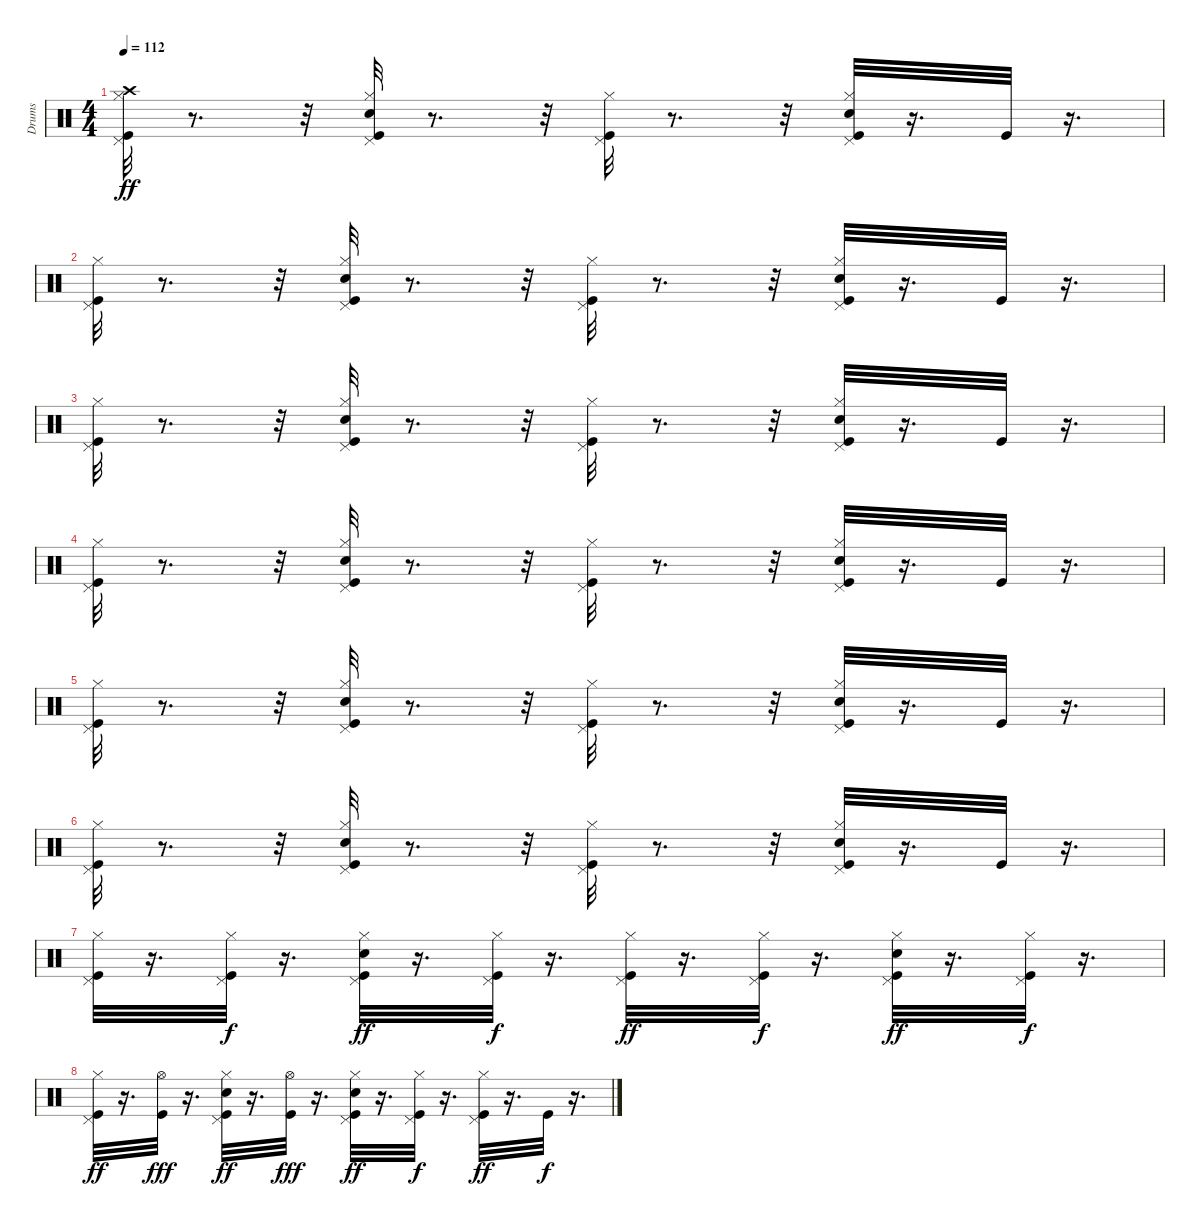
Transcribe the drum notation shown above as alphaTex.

\track ("Drums" "Drums") {instrument percussion}
\staff {score}
\articulation defaults
\ts (4 4)
\tempo 112
\clef neutral
\ks c
("Pedal Hi-Hat (hit)" "Crash high (hit)" "Kick (hit)" "Hi-Hat (closed)").32{dy ff} r.8{d} r.32 ("Pedal Hi-Hat (hit)" "Hi-Hat (closed)" "Kick (hit)" "Snare (hit) 2").32 r.8{d} r.32 ("Pedal Hi-Hat (hit)" "Kick (hit)" "Hi-Hat (closed)").32 r.8{d} r.32 ("Pedal Hi-Hat (hit)" "Snare (hit) 2" "Kick (hit)" "Hi-Hat (closed)").32 r.16{d} "Kick (hit)".32 r.16{d} |
("Pedal Hi-Hat (hit)" "Hi-Hat (closed)" "Kick (hit)").32 r.8{d} r.32 ("Snare (hit) 2" "Hi-Hat (closed)" "Kick (hit)" "Pedal Hi-Hat (hit)").32 r.8{d} r.32 ("Kick (hit)" "Pedal Hi-Hat (hit)" "Hi-Hat (closed)").32 r.8{d} r.32 ("Snare (hit) 2" "Kick (hit)" "Hi-Hat (closed)" "Pedal Hi-Hat (hit)").32 r.16{d} "Kick (hit)".32 r.16{d} |
("Pedal Hi-Hat (hit)" "Kick (hit)" "Hi-Hat (closed)").32 r.8{d} r.32 ("Kick (hit)" "Hi-Hat (closed)" "Snare (hit) 2" "Pedal Hi-Hat (hit)").32 r.8{d} r.32 ("Kick (hit)" "Pedal Hi-Hat (hit)" "Hi-Hat (closed)").32 r.8{d} r.32 ("Hi-Hat (closed)" "Kick (hit)" "Snare (hit) 2" "Pedal Hi-Hat (hit)").32 r.16{d} "Kick (hit)".32 r.16{d} |
("Pedal Hi-Hat (hit)" "Kick (hit)" "Hi-Hat (closed)").32 r.8{d} r.32 ("Hi-Hat (closed)" "Snare (hit) 2" "Kick (hit)" "Pedal Hi-Hat (hit)").32 r.8{d} r.32 ("Kick (hit)" "Hi-Hat (closed)" "Pedal Hi-Hat (hit)").32 r.8{d} r.32 ("Snare (hit) 2" "Kick (hit)" "Pedal Hi-Hat (hit)" "Hi-Hat (closed)").32 r.16{d} "Kick (hit)".32 r.16{d} |
("Hi-Hat (closed)" "Pedal Hi-Hat (hit)" "Kick (hit)").32 r.8{d} r.32 ("Snare (hit) 2" "Kick (hit)" "Pedal Hi-Hat (hit)" "Hi-Hat (closed)").32 r.8{d} r.32 ("Kick (hit)" "Hi-Hat (closed)" "Pedal Hi-Hat (hit)").32 r.8{d} r.32 ("Snare (hit) 2" "Kick (hit)" "Pedal Hi-Hat (hit)" "Hi-Hat (closed)").32 r.16{d} "Kick (hit)".32 r.16{d} |
("Pedal Hi-Hat (hit)" "Hi-Hat (closed)" "Kick (hit)").32 r.8{d} r.32 ("Pedal Hi-Hat (hit)" "Snare (hit) 2" "Hi-Hat (closed)" "Kick (hit)").32 r.8{d} r.32 ("Kick (hit)" "Hi-Hat (closed)" "Pedal Hi-Hat (hit)").32 r.8{d} r.32 ("Pedal Hi-Hat (hit)" "Snare (hit) 2" "Hi-Hat (closed)" "Kick (hit)").32 r.16{d} "Kick (hit)".32 r.16{d} |
("Pedal Hi-Hat (hit)" "Hi-Hat (closed)" "Kick (hit)").32 r.16{d} ("Kick (hit)" "Pedal Hi-Hat (hit)" "Hi-Hat (closed)").32{dy f} r.16{d} ("Hi-Hat (closed)" "Snare (hit) 2" "Pedal Hi-Hat (hit)" "Kick (hit)").32{dy ff} r.16{d} ("Pedal Hi-Hat (hit)" "Kick (hit)" "Hi-Hat (closed)").32{dy f} r.16{d} ("Pedal Hi-Hat (hit)" "Hi-Hat (closed)" "Kick (hit)").32{dy ff} r.16{d} ("Pedal Hi-Hat (hit)" "Kick (hit)" "Hi-Hat (closed)").32{dy f} r.16{d} ("Pedal Hi-Hat (hit)" "Hi-Hat (closed)" "Kick (hit)" "Snare (hit) 2").32{dy ff} r.16{d} ("Pedal Hi-Hat (hit)" "Hi-Hat (closed)" "Kick (hit)").32{dy f} r.16{d} |
("Pedal Hi-Hat (hit)" "Hi-Hat (closed)" "Kick (hit)").32{dy ff} r.16{d} ("Kick (hit)" "Hi-Hat (open)").32{dy fff} r.16{d} ("Kick (hit)" "Snare (hit) 2" "Hi-Hat (closed)" "Pedal Hi-Hat (hit)").32{dy ff} r.16{d} ("Hi-Hat (open)" "Kick (hit)").32{dy fff} r.16{d} ("Snare (hit) 2" "Pedal Hi-Hat (hit)" "Hi-Hat (closed)" "Kick (hit)").32{dy ff} r.16{d} ("Kick (hit)" "Pedal Hi-Hat (hit)" "Hi-Hat (closed)").32{dy f} r.16{d} ("Hi-Hat (closed)" "Kick (hit)" "Pedal Hi-Hat (hit)").32{dy ff} r.16{d} "Kick (hit)".32{dy f} r.16{d}
